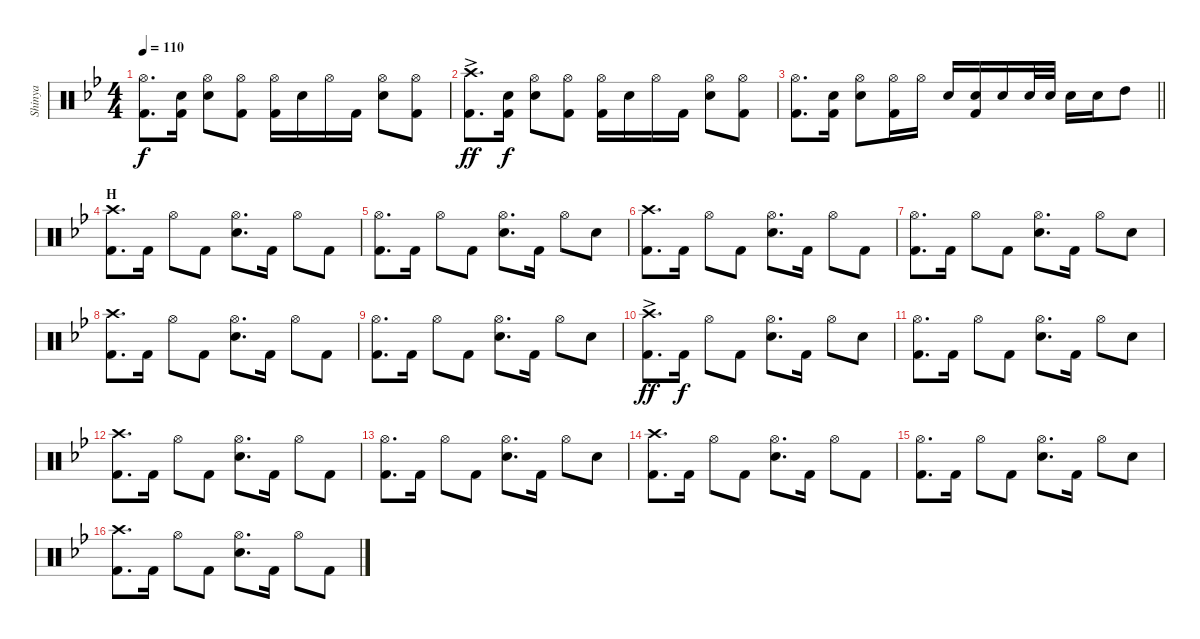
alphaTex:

\track ("Shinya" "Shinya") {instrument percussion}
\staff {score}
\articulation defaults
\ts (4 4)
\tempo 110
\clef neutral
\ks bb
("Hi-Hat (open)" "Kick (hit) 2").8{d dy f} ("Snare (hit) 2" "Kick (hit) 2").16 ("Hi-Hat (open)" "Snare (hit) 2").8 ("Hi-Hat (open)" "Kick (hit) 2").8 ("Hi-Hat (open)" "Kick (hit) 2").16 "Snare (hit) 2".16 "Hi-Hat (open)".16 "Kick (hit) 2".16 ("Hi-Hat (open)" "Snare (hit) 2").8 ("Hi-Hat (open)" "Kick (hit) 2").8 |
("Crash high (hit)"{ac} "Kick (hit) 2").8{d dy ff} ("Snare (hit) 2" "Kick (hit) 2").16{dy f} ("Hi-Hat (open)" "Snare (hit) 2").8 ("Hi-Hat (open)" "Kick (hit) 2").8 ("Hi-Hat (open)" "Kick (hit) 2").16 "Snare (hit) 2".16 "Hi-Hat (open)".16 "Kick (hit) 2".16 ("Hi-Hat (open)" "Snare (hit) 2").8 ("Hi-Hat (open)" "Kick (hit) 2").8 |
\barLineRight lightlight
("Hi-Hat (open)" "Kick (hit) 2").8{d} ("Snare (hit) 2" "Kick (hit) 2").16 ("Hi-Hat (open)" "Snare (hit) 2").8 ("Hi-Hat (open)" "Kick (hit) 2").16 "Hi-Hat (open)".16 "Snare (hit) 2".16 ("Snare (hit) 2" "Kick (hit) 2").16 "Snare (hit) 2".16 "Snare (hit) 2".32 "Snare (hit) 2".32 "Snare (hit) 2".16 "Snare (hit) 2".16 "High Tom (hit)".8 |
\section ("" "H")
("Crash high (hit)" "Kick (hit) 2").8{d} "Kick (hit) 2".16 "Hi-Hat (open)".8 "Kick (hit) 2".8 ("Hi-Hat (open)" "Snare (hit) 2").8{d} "Kick (hit) 2".16 "Hi-Hat (open)".8 "Kick (hit) 2".8 |
("Hi-Hat (open)" "Kick (hit) 2").8{d} "Kick (hit) 2".16 "Hi-Hat (open)".8 "Kick (hit) 2".8 ("Hi-Hat (open)" "Snare (hit) 2").8{d} "Kick (hit) 2".16 "Hi-Hat (open)".8 "Snare (hit) 2".8 |
("Crash high (hit)" "Kick (hit) 2").8{d} "Kick (hit) 2".16 "Hi-Hat (open)".8 "Kick (hit) 2".8 ("Hi-Hat (open)" "Snare (hit) 2").8{d} "Kick (hit) 2".16 "Hi-Hat (open)".8 "Kick (hit) 2".8 |
("Hi-Hat (open)" "Kick (hit) 2").8{d} "Kick (hit) 2".16 "Hi-Hat (open)".8 "Kick (hit) 2".8 ("Hi-Hat (open)" "Snare (hit) 2").8{d} "Kick (hit) 2".16 "Hi-Hat (open)".8 "Snare (hit) 2".8 |
("Crash high (hit)" "Kick (hit) 2").8{d} "Kick (hit) 2".16 "Hi-Hat (open)".8 "Kick (hit) 2".8 ("Hi-Hat (open)" "Snare (hit) 2").8{d} "Kick (hit) 2".16 "Hi-Hat (open)".8 "Kick (hit) 2".8 |
("Hi-Hat (open)" "Kick (hit) 2").8{d} "Kick (hit) 2".16 "Hi-Hat (open)".8 "Kick (hit) 2".8 ("Hi-Hat (open)" "Snare (hit) 2").8{d} "Kick (hit) 2".16 "Hi-Hat (open)".8 "Snare (hit) 2".8 |
("Crash high (hit)" "Kick (hit) 2"{ac}).8{d dy ff} "Kick (hit) 2".16{dy f} "Hi-Hat (open)".8 "Kick (hit) 2".8 ("Hi-Hat (open)" "Snare (hit) 2").8{d} "Kick (hit) 2".16 "Hi-Hat (open)".8 "Snare (hit) 2".8 |
("Hi-Hat (open)" "Kick (hit) 2").8{d} "Kick (hit) 2".16 "Hi-Hat (open)".8 "Kick (hit) 2".8 ("Hi-Hat (open)" "Snare (hit) 2").8{d} "Kick (hit) 2".16 "Hi-Hat (open)".8 "Snare (hit) 2".8 |
("Crash high (hit)" "Kick (hit) 2").8{d} "Kick (hit) 2".16 "Hi-Hat (open)".8 "Kick (hit) 2".8 ("Hi-Hat (open)" "Snare (hit) 2").8{d} "Kick (hit) 2".16 "Hi-Hat (open)".8 "Kick (hit) 2".8 |
("Hi-Hat (open)" "Kick (hit) 2").8{d} "Kick (hit) 2".16 "Hi-Hat (open)".8 "Kick (hit) 2".8 ("Hi-Hat (open)" "Snare (hit) 2").8{d} "Kick (hit) 2".16 "Hi-Hat (open)".8 "Snare (hit) 2".8 |
("Crash high (hit)" "Kick (hit) 2").8{d} "Kick (hit) 2".16 "Hi-Hat (open)".8 "Kick (hit) 2".8 ("Hi-Hat (open)" "Snare (hit) 2").8{d} "Kick (hit) 2".16 "Hi-Hat (open)".8 "Kick (hit) 2".8 |
("Hi-Hat (open)" "Kick (hit) 2").8{d} "Kick (hit) 2".16 "Hi-Hat (open)".8 "Kick (hit) 2".8 ("Hi-Hat (open)" "Snare (hit) 2").8{d} "Kick (hit) 2".16 "Hi-Hat (open)".8 "Snare (hit) 2".8 |
("Crash high (hit)" "Kick (hit) 2").8{d} "Kick (hit) 2".16 "Hi-Hat (open)".8 "Kick (hit) 2".8 ("Hi-Hat (open)" "Snare (hit) 2").8{d} "Kick (hit) 2".16 "Hi-Hat (open)".8 "Kick (hit) 2".8
